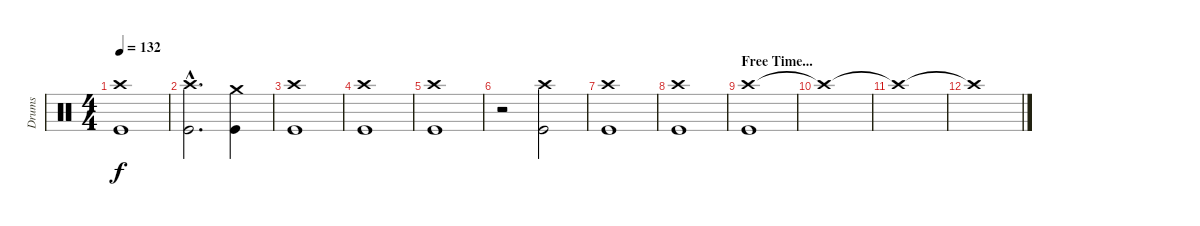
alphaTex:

\track ("Drums" "Drums") {instrument percussion}
\staff {score}
\articulation defaults
\ts (4 4)
\tempo 132
\clef neutral
\ks c
("Crash high (hit)" "Kick (hit)").1{dy f} |
("Crash high (hit)"{hac} "Kick (hit)"{hac}).2{d} ("Crash medium (hit)" "Kick (hit)").4 |
("Crash high (hit)" "Kick (hit)").1 |
("Crash high (hit)" "Kick (hit)").1 |
("Crash high (hit)" "Kick (hit)").1 |
r.2 ("Crash high (hit)" "Kick (hit)").2 |
("Crash high (hit)" "Kick (hit)").1 |
("Crash high (hit)" "Kick (hit)").1 |
\section ("" "Free Time...")
("Crash high (hit)" "Kick (hit)").1 |
"Crash high (hit)"{t}.1 |
"Crash high (hit)"{t}.1 |
"Crash high (hit)"{t}.1
